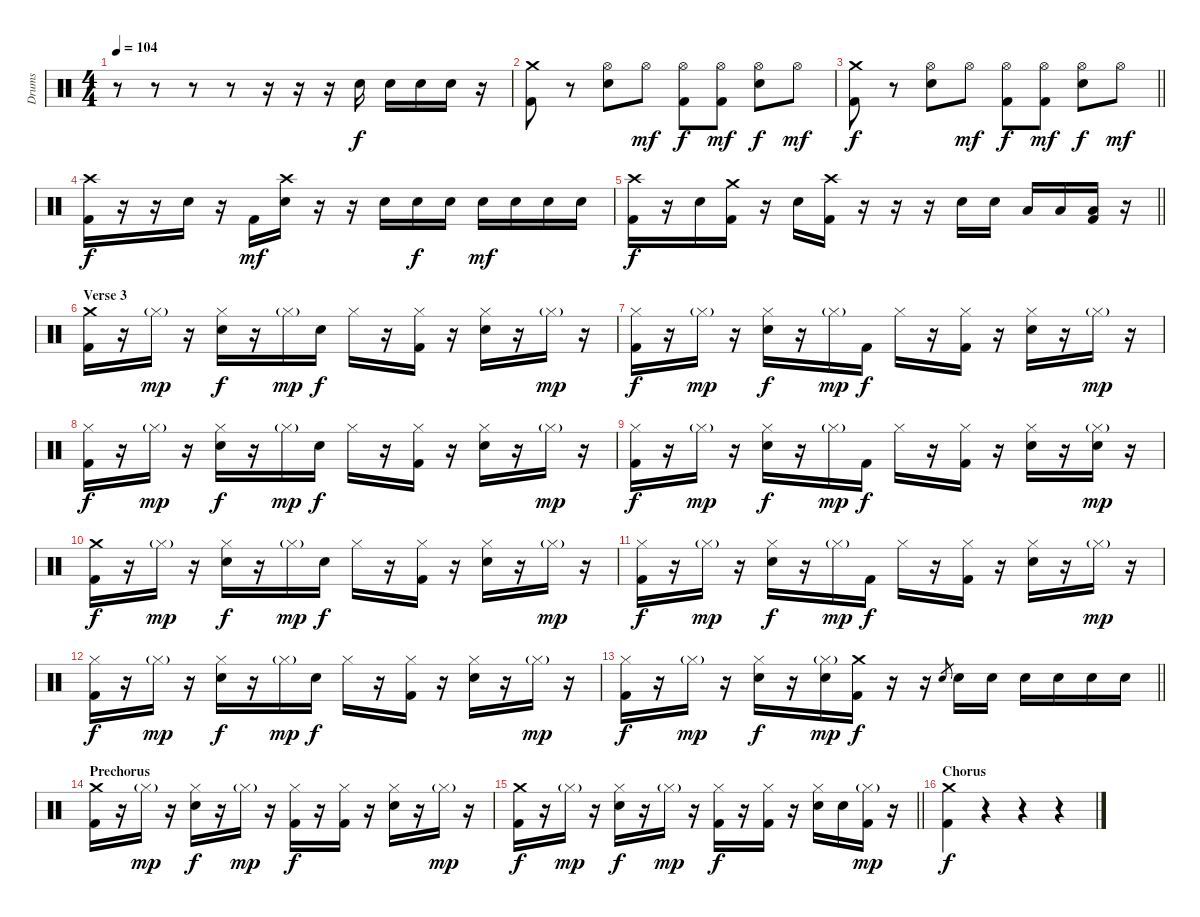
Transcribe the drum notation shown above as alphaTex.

\track ("Drums" "Drums") {instrument percussion}
\staff {score}
\articulation defaults
\ts (4 4)
\tempo 104
\clef neutral
\ks c
r.8{dy f} r.8 r.8 r.8 r.16 r.16 r.16 "Snare (hit) 2".16 "Snare (hit) 2".16 "Snare (hit) 2".16 "Snare (hit) 2".16 r.16 |
("Crash medium (hit)" "Kick (hit) 2").8 r.8 ("Hi-Hat (open)" "Snare (hit) 2").8 "Hi-Hat (open)".8{dy mf} ("Hi-Hat (open)" "Kick (hit) 2").8{dy f} ("Hi-Hat (open)" "Kick (hit) 2").8{dy mf} ("Hi-Hat (open)" "Snare (hit) 2").8{dy f} "Hi-Hat (open)".8{dy mf} |
\barLineRight lightlight
("Crash medium (hit)" "Kick (hit) 2").8{dy f} r.8 ("Hi-Hat (open)" "Snare (hit) 2").8 "Hi-Hat (open)".8{dy mf} ("Hi-Hat (open)" "Kick (hit) 2").8{dy f} ("Hi-Hat (open)" "Kick (hit) 2").8{dy mf} ("Hi-Hat (open)" "Snare (hit) 2").8{dy f} "Hi-Hat (open)".8{dy mf} |
("Crash high (hit)" "Kick (hit) 2").16{dy f} r.16 r.16 "Snare (hit) 2".16 r.16 "Kick (hit) 2".16{dy mf} ("Crash high (hit)" "Snare (hit) 2").16 r.16 r.16 "Snare (hit) 2".16 "Snare (hit) 2".16{dy f} "Snare (hit) 2".16 "Snare (hit) 2".16{dy mf} "Snare (hit) 2".16 "Snare (hit) 2".16 "Snare (hit) 2".16 |
\barLineRight lightlight
("Crash high (hit)" "Kick (hit) 2").16{dy f} r.16 "Snare (hit) 2".16 ("Crash medium (hit)" "Kick (hit) 2").16 r.16 "Snare (hit) 2".16 ("Crash high (hit)" "Kick (hit) 2").16 r.16 r.16 r.16 "Snare (hit) 2".16 "Snare (hit) 2".16 "Low Tom (hit)".16 "Low Tom (hit)".16 ("Low Floor Tom (hit)" "Kick (hit) 2").16 r.16 |
\section ("" "Verse 3")
("Crash medium (hit)" "Kick (hit) 2").16 r.16 "Hi-Hat (closed)"{g}.16{dy mp} r.16 ("Hi-Hat (closed)" "Snare (hit) 2").16{dy f} r.16 "Hi-Hat (closed)"{g}.16{dy mp} "Snare (hit) 2".16{dy f} "Hi-Hat (closed)".16 r.16 ("Hi-Hat (closed)" "Kick (hit) 2").16 r.16 ("Hi-Hat (closed)" "Snare (hit) 2").16 r.16 "Hi-Hat (closed)"{g}.16{dy mp} r.16 |
("Hi-Hat (closed)" "Kick (hit) 2").16{dy f} r.16 "Hi-Hat (closed)"{g}.16{dy mp} r.16 ("Hi-Hat (closed)" "Snare (hit) 2").16{dy f} r.16 "Hi-Hat (closed)"{g}.16{dy mp} "Kick (hit) 2".16{dy f} "Hi-Hat (closed)".16 r.16 ("Hi-Hat (closed)" "Kick (hit) 2").16 r.16 ("Hi-Hat (closed)" "Snare (hit) 2").16 r.16 "Hi-Hat (closed)"{g}.16{dy mp} r.16 |
("Hi-Hat (closed)" "Kick (hit) 2").16{dy f} r.16 "Hi-Hat (closed)"{g}.16{dy mp} r.16 ("Hi-Hat (closed)" "Snare (hit) 2").16{dy f} r.16 "Hi-Hat (closed)"{g}.16{dy mp} "Snare (hit) 2".16{dy f} "Hi-Hat (closed)".16 r.16 ("Hi-Hat (closed)" "Kick (hit) 2").16 r.16 ("Hi-Hat (closed)" "Snare (hit) 2").16 r.16 "Hi-Hat (closed)"{g}.16{dy mp} r.16 |
("Hi-Hat (closed)" "Kick (hit) 2").16{dy f} r.16 "Hi-Hat (closed)"{g}.16{dy mp} r.16 ("Hi-Hat (closed)" "Snare (hit) 2").16{dy f} r.16 "Hi-Hat (closed)"{g}.16{dy mp} "Kick (hit) 2".16{dy f} "Hi-Hat (closed)".16 r.16 ("Hi-Hat (closed)" "Kick (hit) 2").16 r.16 ("Hi-Hat (closed)" "Snare (hit) 2").16 r.16 ("Hi-Hat (closed)"{g} "Snare (hit) 2").16{dy mp} r.16 |
("Crash medium (hit)" "Kick (hit) 2").16{dy f} r.16 "Hi-Hat (closed)"{g}.16{dy mp} r.16 ("Hi-Hat (closed)" "Snare (hit) 2").16{dy f} r.16 "Hi-Hat (closed)"{g}.16{dy mp} "Snare (hit) 2".16{dy f} "Hi-Hat (closed)".16 r.16 ("Hi-Hat (closed)" "Kick (hit) 2").16 r.16 ("Hi-Hat (closed)" "Snare (hit) 2").16 r.16 "Hi-Hat (closed)"{g}.16{dy mp} r.16 |
("Hi-Hat (closed)" "Kick (hit) 2").16{dy f} r.16 "Hi-Hat (closed)"{g}.16{dy mp} r.16 ("Hi-Hat (closed)" "Snare (hit) 2").16{dy f} r.16 "Hi-Hat (closed)"{g}.16{dy mp} "Kick (hit) 2".16{dy f} "Hi-Hat (closed)".16 r.16 ("Hi-Hat (closed)" "Kick (hit) 2").16 r.16 ("Hi-Hat (closed)" "Snare (hit) 2").16 r.16 "Hi-Hat (closed)"{g}.16{dy mp} r.16 |
("Hi-Hat (closed)" "Kick (hit) 2").16{dy f} r.16 "Hi-Hat (closed)"{g}.16{dy mp} r.16 ("Hi-Hat (closed)" "Snare (hit) 2").16{dy f} r.16 "Hi-Hat (closed)"{g}.16{dy mp} "Snare (hit) 2".16{dy f} "Hi-Hat (closed)".16 r.16 ("Hi-Hat (closed)" "Kick (hit) 2").16 r.16 ("Hi-Hat (closed)" "Snare (hit) 2").16 r.16 "Hi-Hat (closed)"{g}.16{dy mp} r.16 |
\barLineRight lightlight
("Hi-Hat (closed)" "Kick (hit) 2").16{dy f} r.16 "Hi-Hat (closed)"{g}.16{dy mp} r.16 ("Hi-Hat (closed)" "Snare (hit) 2").16{dy f} r.16 ("Hi-Hat (closed)"{g} "Snare (hit) 2").16{dy mp} ("Crash medium (hit)" "Kick (hit) 2").16{dy f} r.16 r.16 "Snare (hit) 2".8{gr} "Snare (hit) 2".16 "Snare (hit) 2".16 "Snare (hit) 2".16 "Snare (hit) 2".16 "Snare (hit) 2".16 "Snare (hit) 2".16 |
\section ("" "Prechorus")
("Crash medium (hit)" "Kick (hit) 2").16 r.16 "Hi-Hat (closed)"{g}.16{dy mp} r.16 ("Hi-Hat (closed)" "Snare (hit) 2").16{dy f} r.16 "Hi-Hat (closed)"{g}.16{dy mp} r.16 ("Hi-Hat (closed)" "Kick (hit) 2").16{dy f} r.16 ("Hi-Hat (closed)" "Kick (hit) 2").16 r.16 ("Hi-Hat (closed)" "Snare (hit) 2").16 r.16 "Hi-Hat (closed)"{g}.16{dy mp} r.16 |
\barLineRight lightlight
("Crash medium (hit)" "Kick (hit) 2").16{dy f} r.16 "Hi-Hat (closed)"{g}.16{dy mp} r.16 ("Hi-Hat (closed)" "Snare (hit) 2").16{dy f} r.16 "Hi-Hat (closed)"{g}.16{dy mp} r.16 ("Hi-Hat (closed)" "Kick (hit) 2").16{dy f} r.16 ("Hi-Hat (closed)" "Kick (hit) 2").16 r.16 ("Hi-Hat (closed)" "Snare (hit) 2").16 "Snare (hit) 2".16 ("Hi-Hat (closed)"{g} "Kick (hit) 2").16{dy mp} r.16 |
\section ("" "Chorus")
("Crash medium (hit)" "Kick (hit) 2").4{dy f} r.4 r.4 r.4
